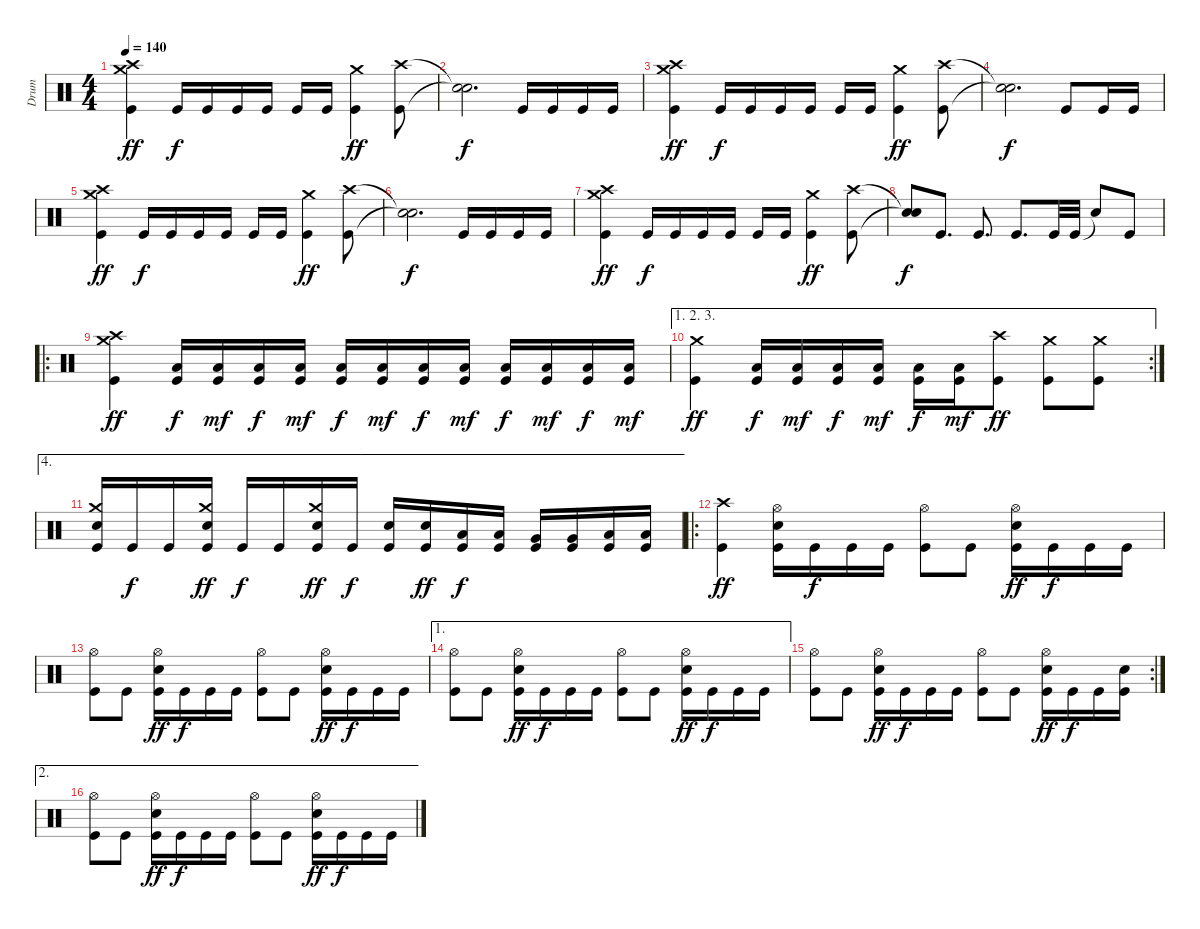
\track ("Drum" "Drum") {instrument percussion}
\staff {score}
\articulation defaults
\ts (4 4)
\tempo 140
\clef neutral
\ks c
("Kick (hit)" "Crash high (hit)" "Crash medium (hit)").4{dy ff} "Kick (hit)".16{dy f} "Kick (hit)".16 "Kick (hit)".16 "Kick (hit)".16 "Kick (hit)".16 "Kick (hit)".16 ("Kick (hit)" "Crash medium (hit)").4{dy ff} ("Kick (hit)" "Crash high (hit)").8 |
("Snare (hit)"{t} "Snare (hit)"{t}).2{d dy f} "Kick (hit)".16 "Kick (hit)".16 "Kick (hit)".16 "Kick (hit)".16 |
("Kick (hit)" "Crash high (hit)" "Crash medium (hit)").4{dy ff} "Kick (hit)".16{dy f} "Kick (hit)".16 "Kick (hit)".16 "Kick (hit)".16 "Kick (hit)".16 "Kick (hit)".16 ("Kick (hit)" "Crash medium (hit)").4{dy ff} ("Kick (hit)" "Crash high (hit)").8 |
("Snare (hit)"{t} "Snare (hit)"{t}).2{d dy f} "Kick (hit)".8 "Kick (hit)".16 "Kick (hit)".16 |
("Kick (hit)" "Crash high (hit)" "Crash medium (hit)").4{dy ff} "Kick (hit)".16{dy f} "Kick (hit)".16 "Kick (hit)".16 "Kick (hit)".16 "Kick (hit)".16 "Kick (hit)".16 ("Kick (hit)" "Crash medium (hit)").4{dy ff} ("Kick (hit)" "Crash high (hit)").8 |
("Snare (hit)"{t} "Snare (hit)"{t}).2{d dy f} "Kick (hit)".16 "Kick (hit)".16 "Kick (hit)".16 "Kick (hit)".16 |
("Kick (hit)" "Crash high (hit)" "Crash medium (hit)").4{dy ff} "Kick (hit)".16{dy f} "Kick (hit)".16 "Kick (hit)".16 "Kick (hit)".16 "Kick (hit)".16 "Kick (hit)".16 ("Kick (hit)" "Crash medium (hit)").4{dy ff} ("Kick (hit)" "Crash high (hit)").8 |
("Snare (hit)"{t} "Snare (hit)"{t}).8{dy f} "Kick (hit)".8{d} "Kick (hit)".8{d} "Kick (hit)".8{d} "Kick (hit)".32 "Kick (hit)".32 "Snare (hit)"{t}.8 "Kick (hit)".8 |
\ro
("Kick (hit)" "Crash high (hit)" "Crash medium (hit)").4{dy ff} ("Kick (hit)" "Low Floor Tom (hit)").16{dy f} ("Kick (hit)" "Low Floor Tom (hit)").16{dy mf} ("Kick (hit)" "Low Floor Tom (hit)").16{dy f} ("Kick (hit)" "Low Floor Tom (hit)").16{dy mf} ("Kick (hit)" "Low Floor Tom (hit)").16{dy f} ("Kick (hit)" "Low Floor Tom (hit)").16{dy mf} ("Kick (hit)" "Low Floor Tom (hit)").16{dy f} ("Kick (hit)" "Low Floor Tom (hit)").16{dy mf} ("Kick (hit)" "Low Floor Tom (hit)").16{dy f} ("Kick (hit)" "Low Floor Tom (hit)").16{dy mf} ("Kick (hit)" "Low Floor Tom (hit)").16{dy f} ("Kick (hit)" "Low Floor Tom (hit)").16{dy mf} |
\ae (1 2 3)
\rc 2
("Kick (hit)" "Crash medium (hit)").4{dy ff} ("Kick (hit)" "Low Floor Tom (hit)").16{dy f} ("Kick (hit)" "Low Floor Tom (hit)").16{dy mf} ("Kick (hit)" "Low Floor Tom (hit)").16{dy f} ("Kick (hit)" "Low Floor Tom (hit)").16{dy mf} ("Kick (hit)" "Low Floor Tom (hit)").16{dy f} ("Kick (hit)" "Low Floor Tom (hit)").16{dy mf} ("Kick (hit)" "Crash high (hit)").8{dy ff} ("Kick (hit)" "Crash medium (hit)").8 ("Kick (hit)" "Crash medium (hit)").8 |
\ae 4
("Kick (hit)" "Electric Snare (hit)" "Crash medium (hit)").16 "Kick (hit)".16{dy f} "Kick (hit)".16 ("Kick (hit)" "Electric Snare (hit)" "Crash medium (hit)").16{dy ff} "Kick (hit)".16{dy f} "Kick (hit)".16 ("Kick (hit)" "Electric Snare (hit)" "Crash medium (hit)").16{dy ff} "Kick (hit)".16{dy f} ("Kick (hit)" "Electric Snare (hit)").16 ("Kick (hit)" "Electric Snare (hit)").16{dy ff} ("Kick (hit)" "Low Tom (hit)").16{dy f} ("Kick (hit)" "Low Tom (hit)").16 ("Kick (hit)" "Very Low Tom (hit)").16 ("Kick (hit)" "Very Low Tom (hit)").16 ("Kick (hit)" "Low Floor Tom (hit)").16 ("Kick (hit)" "Low Floor Tom (hit)").16 |
\ro
("Kick (hit)" "Crash high (hit)").4{dy ff} ("Kick (hit)" "Electric Snare (hit)" "Hi-Hat (open)").16 "Kick (hit)".16{dy f} "Kick (hit)".16 "Kick (hit)".16 ("Kick (hit)" "Hi-Hat (open)").8 "Kick (hit)".8 ("Kick (hit)" "Electric Snare (hit)" "Hi-Hat (open)").16{dy ff} "Kick (hit)".16{dy f} "Kick (hit)".16 "Kick (hit)".16 |
("Kick (hit)" "Hi-Hat (open)").8 "Kick (hit)".8 ("Kick (hit)" "Electric Snare (hit)" "Hi-Hat (open)").16{dy ff} "Kick (hit)".16{dy f} "Kick (hit)".16 "Kick (hit)".16 ("Kick (hit)" "Hi-Hat (open)").8 "Kick (hit)".8 ("Kick (hit)" "Electric Snare (hit)" "Hi-Hat (open)").16{dy ff} "Kick (hit)".16{dy f} "Kick (hit)".16 "Kick (hit)".16 |
\ae 1
("Kick (hit)" "Hi-Hat (open)").8 "Kick (hit)".8 ("Kick (hit)" "Electric Snare (hit)" "Hi-Hat (open)").16{dy ff} "Kick (hit)".16{dy f} "Kick (hit)".16 "Kick (hit)".16 ("Kick (hit)" "Hi-Hat (open)").8 "Kick (hit)".8 ("Kick (hit)" "Electric Snare (hit)" "Hi-Hat (open)").16{dy ff} "Kick (hit)".16{dy f} "Kick (hit)".16 "Kick (hit)".16 |
\rc 2
("Kick (hit)" "Hi-Hat (open)").8 "Kick (hit)".8 ("Kick (hit)" "Electric Snare (hit)" "Hi-Hat (open)").16{dy ff} "Kick (hit)".16{dy f} "Kick (hit)".16 "Kick (hit)".16 ("Kick (hit)" "Hi-Hat (open)").8 "Kick (hit)".8 ("Kick (hit)" "Electric Snare (hit)" "Hi-Hat (open)").16{dy ff} "Kick (hit)".16{dy f} "Kick (hit)".16 ("Kick (hit)" "Electric Snare (hit)").16 |
\ae 2
("Kick (hit)" "Hi-Hat (open)").8 "Kick (hit)".8 ("Kick (hit)" "Electric Snare (hit)" "Hi-Hat (open)").16{dy ff} "Kick (hit)".16{dy f} "Kick (hit)".16 "Kick (hit)".16 ("Kick (hit)" "Hi-Hat (open)").8 "Kick (hit)".8 ("Kick (hit)" "Electric Snare (hit)" "Hi-Hat (open)").16{dy ff} "Kick (hit)".16{dy f} "Kick (hit)".16 "Kick (hit)".16
